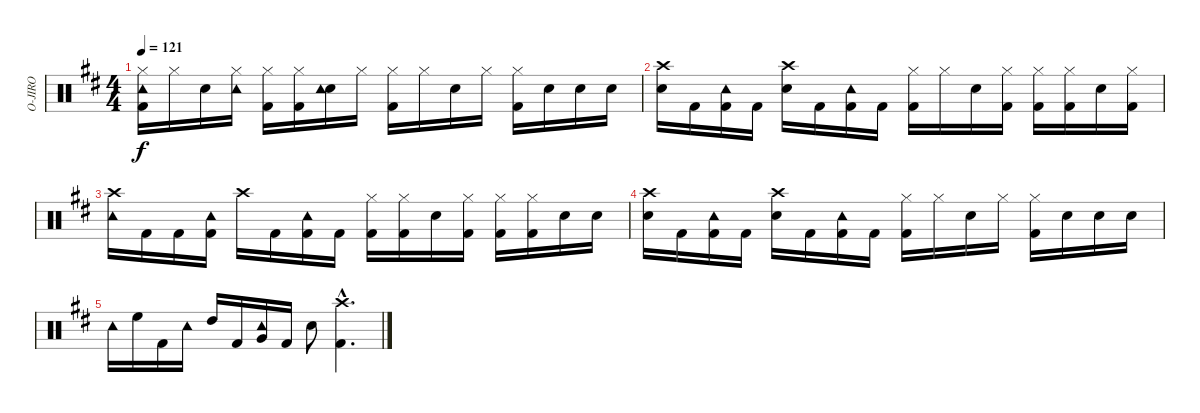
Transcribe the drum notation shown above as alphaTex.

\track ("O-JIRO" "O-JIRO") {instrument percussion}
\staff {score}
\articulation defaults
\ts (4 4)
\tempo 121
\clef neutral
\ks d
("Hi-Hat (closed)" "Kick (hit) 2" "Tambourine (hit)").16{dy f} "Hi-Hat (closed)".16 "Snare (hit) 2".16 ("Hi-Hat (closed)" "Tambourine (hit)").16 ("Hi-Hat (closed)" "Kick (hit) 2").16 ("Hi-Hat (closed)" "Kick (hit) 2").16 ("Snare (hit) 2" "Tambourine (hit)").16 "Hi-Hat (closed)".16 ("Hi-Hat (closed)" "Kick (hit) 2").16 "Hi-Hat (closed)".16 "Snare (hit) 2".16 "Hi-Hat (closed)".16 ("Hi-Hat (closed)" "Kick (hit) 2").16 "Snare (hit) 2".16 "Snare (hit) 2".16 "Snare (hit) 2".16 |
("Crash high (hit)" "Snare (hit) 2").16 "Kick (hit) 2".16 ("Kick (hit) 2" "Tambourine (hit)").16 "Kick (hit) 2".16 ("Crash high (hit)" "Snare (hit) 2").16 "Kick (hit) 2".16 ("Kick (hit) 2" "Tambourine (hit)").16 "Kick (hit) 2".16 ("Hi-Hat (closed)" "Kick (hit) 2").16 "Hi-Hat (closed)".16 "Snare (hit) 2".16 ("Hi-Hat (closed)" "Kick (hit) 2").16 ("Hi-Hat (closed)" "Kick (hit) 2").16 ("Hi-Hat (closed)" "Kick (hit) 2").16 "Snare (hit) 2".16 ("Hi-Hat (closed)" "Kick (hit) 2").16 |
("Crash high (hit)" "Tambourine (hit)").16 "Kick (hit) 2".16 "Kick (hit) 2".16 ("Kick (hit) 2" "Tambourine (hit)").16 "Crash high (hit)".16 "Kick (hit) 2".16 ("Kick (hit) 2" "Tambourine (hit)").16 "Kick (hit) 2".16 ("Hi-Hat (closed)" "Kick (hit) 2").16 ("Hi-Hat (closed)" "Kick (hit) 2").16 "Snare (hit) 2".16 ("Hi-Hat (closed)" "Kick (hit) 2").16 ("Hi-Hat (closed)" "Kick (hit) 2").16 ("Hi-Hat (closed)" "Kick (hit) 2").16 "Snare (hit) 2".16 "Snare (hit) 2".16 |
("Crash high (hit)" "Snare (hit) 2").16 "Kick (hit) 2".16 ("Kick (hit) 2" "Tambourine (hit)").16 "Kick (hit) 2".16 ("Crash high (hit)" "Snare (hit) 2").16 "Kick (hit) 2".16 ("Kick (hit) 2" "Tambourine (hit)").16 "Kick (hit) 2".16 ("Hi-Hat (closed)" "Kick (hit) 2").16 "Hi-Hat (closed)".16 "Snare (hit) 2".16 "Hi-Hat (closed)".16 ("Hi-Hat (closed)" "Kick (hit) 2").16 "Snare (hit) 2".16 "Snare (hit) 2".16 "Snare (hit) 2".16 |
"Tambourine (hit)".16 "High Floor Tom (hit)".16 "Kick (hit) 2".16 "Tambourine (hit)".16 "High Tom (hit)".16 "Kick (hit) 2".16 ("Very Low Tom (hit)" "Tambourine (hit)").16 "Kick (hit) 2".16 "Snare (hit) 2".8 ("Crash high (hit)"{hac} "Kick (hit) 2"{hac}).4{d}
